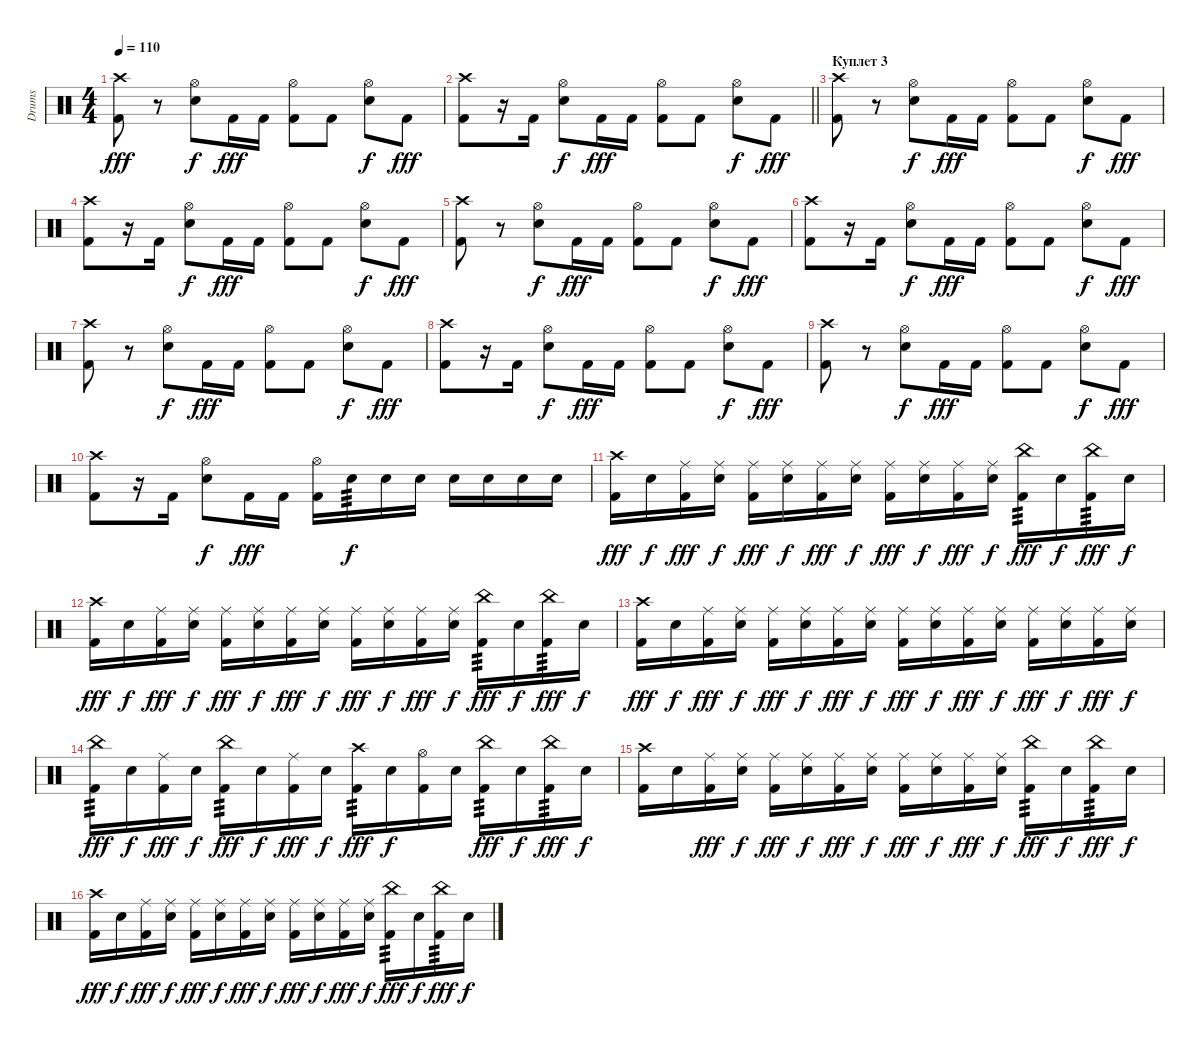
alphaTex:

\track ("Drums" "Drums") {instrument percussion}
\staff {score}
\articulation defaults
\ts (4 4)
\tempo 110
\clef neutral
\ks c
("Crash high (hit)" "Kick (hit) 2").8{dy fff} r.8 ("Hi-Hat (open)" "Snare (hit) 2").8{dy f} "Kick (hit) 2".16{dy fff} "Kick (hit) 2".16 ("Hi-Hat (open)" "Kick (hit) 2").8 "Kick (hit) 2".8 ("Hi-Hat (open)" "Snare (hit) 2").8{dy f} "Kick (hit) 2".8{dy fff} |
\barLineRight lightlight
("Crash high (hit)" "Kick (hit) 2").8 r.16 "Kick (hit) 2".16 ("Hi-Hat (open)" "Snare (hit) 2").8{dy f} "Kick (hit) 2".16{dy fff} "Kick (hit) 2".16 ("Hi-Hat (open)" "Kick (hit) 2").8 "Kick (hit) 2".8 ("Hi-Hat (open)" "Snare (hit) 2").8{dy f} "Kick (hit) 2".8{dy fff} |
\section ("" "Куплет 3")
("Crash high (hit)" "Kick (hit) 2").8 r.8 ("Hi-Hat (open)" "Snare (hit) 2").8{dy f} "Kick (hit) 2".16{dy fff} "Kick (hit) 2".16 ("Hi-Hat (open)" "Kick (hit) 2").8 "Kick (hit) 2".8 ("Hi-Hat (open)" "Snare (hit) 2").8{dy f} "Kick (hit) 2".8{dy fff} |
("Crash high (hit)" "Kick (hit) 2").8 r.16 "Kick (hit) 2".16 ("Hi-Hat (open)" "Snare (hit) 2").8{dy f} "Kick (hit) 2".16{dy fff} "Kick (hit) 2".16 ("Hi-Hat (open)" "Kick (hit) 2").8 "Kick (hit) 2".8 ("Hi-Hat (open)" "Snare (hit) 2").8{dy f} "Kick (hit) 2".8{dy fff} |
("Crash high (hit)" "Kick (hit) 2").8 r.8 ("Hi-Hat (open)" "Snare (hit) 2").8{dy f} "Kick (hit) 2".16{dy fff} "Kick (hit) 2".16 ("Hi-Hat (open)" "Kick (hit) 2").8 "Kick (hit) 2".8 ("Hi-Hat (open)" "Snare (hit) 2").8{dy f} "Kick (hit) 2".8{dy fff} |
("Crash high (hit)" "Kick (hit) 2").8 r.16 "Kick (hit) 2".16 ("Hi-Hat (open)" "Snare (hit) 2").8{dy f} "Kick (hit) 2".16{dy fff} "Kick (hit) 2".16 ("Hi-Hat (open)" "Kick (hit) 2").8 "Kick (hit) 2".8 ("Hi-Hat (open)" "Snare (hit) 2").8{dy f} "Kick (hit) 2".8{dy fff} |
("Crash high (hit)" "Kick (hit) 2").8 r.8 ("Hi-Hat (open)" "Snare (hit) 2").8{dy f} "Kick (hit) 2".16{dy fff} "Kick (hit) 2".16 ("Hi-Hat (open)" "Kick (hit) 2").8 "Kick (hit) 2".8 ("Hi-Hat (open)" "Snare (hit) 2").8{dy f} "Kick (hit) 2".8{dy fff} |
("Crash high (hit)" "Kick (hit) 2").8 r.16 "Kick (hit) 2".16 ("Hi-Hat (open)" "Snare (hit) 2").8{dy f} "Kick (hit) 2".16{dy fff} "Kick (hit) 2".16 ("Hi-Hat (open)" "Kick (hit) 2").8 "Kick (hit) 2".8 ("Hi-Hat (open)" "Snare (hit) 2").8{dy f} "Kick (hit) 2".8{dy fff} |
("Crash high (hit)" "Kick (hit) 2").8 r.8 ("Hi-Hat (open)" "Snare (hit) 2").8{dy f} "Kick (hit) 2".16{dy fff} "Kick (hit) 2".16 ("Hi-Hat (open)" "Kick (hit) 2").8 "Kick (hit) 2".8 ("Hi-Hat (open)" "Snare (hit) 2").8{dy f} "Kick (hit) 2".8{dy fff} |
("Crash high (hit)" "Kick (hit) 2").8 r.16 "Kick (hit) 2".16 ("Hi-Hat (open)" "Snare (hit) 2").8{dy f} "Kick (hit) 2".16{dy fff} "Kick (hit) 2".16 ("Hi-Hat (open)" "Kick (hit) 2").16 "Snare (hit) 2".16{tp 3 dy f} "Snare (hit) 2".16 "Snare (hit) 2".16 "Snare (hit) 2".16 "Snare (hit) 2".16 "Snare (hit) 2".16 "Snare (hit) 2".16 |
("Crash high (hit)" "Kick (hit) 2").16{dy fff} "Snare (hit) 2".16{dy f} ("Ride (middle)" "Kick (hit) 2").16{dy fff} ("Ride (middle)" "Snare (hit) 2").16{dy f} ("Ride (middle)" "Kick (hit) 2").16{dy fff} ("Ride (middle)" "Snare (hit) 2").16{dy f} ("Ride (middle)" "Kick (hit) 2").16{dy fff} ("Ride (middle)" "Snare (hit) 2").16{dy f} ("Ride (middle)" "Kick (hit) 2").16{dy fff} ("Ride (middle)" "Snare (hit) 2").16{dy f} ("Ride (middle)" "Kick (hit) 2").16{dy fff} ("Ride (middle)" "Snare (hit) 2").16{dy f} ("China (hit)" "Kick (hit) 2").16{tp 3 dy fff} "Snare (hit) 2".16{dy f} ("China (hit)" "Kick (hit) 2").16{tp 3 dy fff} "Snare (hit) 2".16{dy f} |
("Crash high (hit)" "Kick (hit) 2").16{dy fff} "Snare (hit) 2".16{dy f} ("Ride (middle)" "Kick (hit) 2").16{dy fff} ("Ride (middle)" "Snare (hit) 2").16{dy f} ("Ride (middle)" "Kick (hit) 2").16{dy fff} ("Ride (middle)" "Snare (hit) 2").16{dy f} ("Ride (middle)" "Kick (hit) 2").16{dy fff} ("Ride (middle)" "Snare (hit) 2").16{dy f} ("Ride (middle)" "Kick (hit) 2").16{dy fff} ("Ride (middle)" "Snare (hit) 2").16{dy f} ("Ride (middle)" "Kick (hit) 2").16{dy fff} ("Ride (middle)" "Snare (hit) 2").16{dy f} ("China (hit)" "Kick (hit) 2").16{tp 3 dy fff} "Snare (hit) 2".16{dy f} ("China (hit)" "Kick (hit) 2").16{tp 3 dy fff} "Snare (hit) 2".16{dy f} |
("Crash high (hit)" "Kick (hit) 2").16{dy fff} "Snare (hit) 2".16{dy f} ("Ride (middle)" "Kick (hit) 2").16{dy fff} ("Ride (middle)" "Snare (hit) 2").16{dy f} ("Ride (middle)" "Kick (hit) 2").16{dy fff} ("Ride (middle)" "Snare (hit) 2").16{dy f} ("Ride (middle)" "Kick (hit) 2").16{dy fff} ("Ride (middle)" "Snare (hit) 2").16{dy f} ("Ride (middle)" "Kick (hit) 2").16{dy fff} ("Ride (middle)" "Snare (hit) 2").16{dy f} ("Ride (middle)" "Kick (hit) 2").16{dy fff} ("Ride (middle)" "Snare (hit) 2").16{dy f} ("Ride (middle)" "Kick (hit) 2").16{dy fff} ("Ride (middle)" "Snare (hit) 2").16{dy f} ("Ride (middle)" "Kick (hit) 2").16{dy fff} ("Ride (middle)" "Snare (hit) 2").16{dy f} |
("China (hit)" "Kick (hit) 2").16{tp 3 dy fff} "Snare (hit) 2".16{dy f} ("Ride (middle)" "Kick (hit) 2").16{dy fff} "Snare (hit) 2".16{dy f} ("China (hit)" "Kick (hit) 2").16{tp 3 dy fff} "Snare (hit) 2".16{dy f} ("Ride (middle)" "Kick (hit) 2").16{dy fff} "Snare (hit) 2".16{dy f} ("Crash high (hit)" "Kick (hit) 2").16{tp 3 dy fff} "Snare (hit) 2".16{dy f} ("Hi-Hat (open)" "Kick (hit) 2").16 "Snare (hit) 2".16 ("China (hit)" "Kick (hit) 2").16{tp 3 dy fff} "Snare (hit) 2".16{dy f} ("China (hit)" "Kick (hit) 2").16{tp 3 dy fff} "Snare (hit) 2".16{dy f} |
("Crash high (hit)" "Kick (hit) 2").16 "Snare (hit) 2".16 ("Ride (middle)" "Kick (hit) 2").16{dy fff} ("Ride (middle)" "Snare (hit) 2").16{dy f} ("Ride (middle)" "Kick (hit) 2").16{dy fff} ("Ride (middle)" "Snare (hit) 2").16{dy f} ("Ride (middle)" "Kick (hit) 2").16{dy fff} ("Ride (middle)" "Snare (hit) 2").16{dy f} ("Ride (middle)" "Kick (hit) 2").16{dy fff} ("Ride (middle)" "Snare (hit) 2").16{dy f} ("Ride (middle)" "Kick (hit) 2").16{dy fff} ("Ride (middle)" "Snare (hit) 2").16{dy f} ("China (hit)" "Kick (hit) 2").16{tp 3 dy fff} "Snare (hit) 2".16{dy f} ("China (hit)" "Kick (hit) 2").16{tp 3 dy fff} "Snare (hit) 2".16{dy f} |
("Crash high (hit)" "Kick (hit) 2").16{dy fff} "Snare (hit) 2".16{dy f} ("Ride (middle)" "Kick (hit) 2").16{dy fff} ("Ride (middle)" "Snare (hit) 2").16{dy f} ("Ride (middle)" "Kick (hit) 2").16{dy fff} ("Ride (middle)" "Snare (hit) 2").16{dy f} ("Ride (middle)" "Kick (hit) 2").16{dy fff} ("Ride (middle)" "Snare (hit) 2").16{dy f} ("Ride (middle)" "Kick (hit) 2").16{dy fff} ("Ride (middle)" "Snare (hit) 2").16{dy f} ("Ride (middle)" "Kick (hit) 2").16{dy fff} ("Ride (middle)" "Snare (hit) 2").16{dy f} ("China (hit)" "Kick (hit) 2").16{tp 3 dy fff} "Snare (hit) 2".16{dy f} ("China (hit)" "Kick (hit) 2").16{tp 3 dy fff} "Snare (hit) 2".16{dy f}
